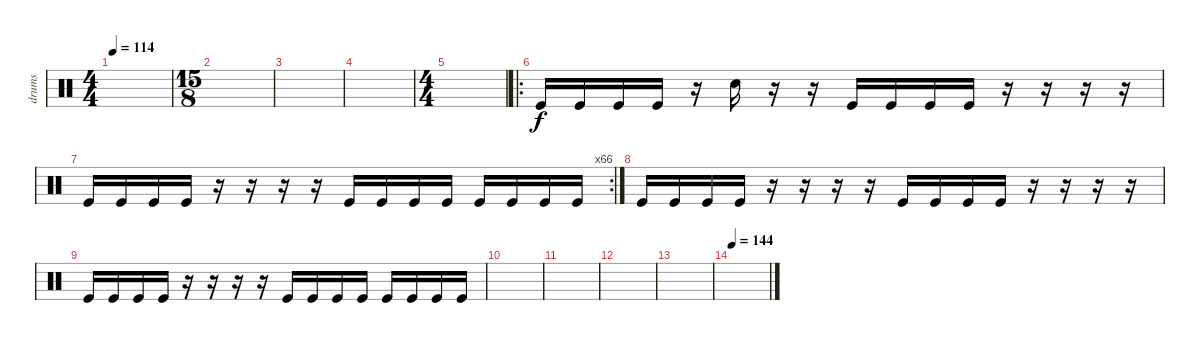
\track ("drums" "drums") {instrument percussion}
\staff {score}
\articulation defaults
\ts (4 4)
\tempo 114
\tempo 80
\tempo 114
\clef neutral
\ks c
|
\ts (15 8)
|
|
|
\ts (4 4)
|
\ro "Kick (hit)".16 "Kick (hit)".16 "Kick (hit)".16 "Kick (hit)".16
r.16 "Electric Snare (hit)".16 r.16 r.16 "Kick (hit)".16 "Kick (hit)".16 "Kick (hit)".16 "Kick (hit)".16 r.16 r.16 r.16 r.16 |
\rc 66 "Kick (hit)".16 "Kick (hit)".16 "Kick (hit)".16 "Kick (hit)".16
r.16 r.16 r.16 r.16 "Kick (hit)".16 "Kick (hit)".16 "Kick (hit)".16 "Kick (hit)".16 "Kick (hit)".16 "Kick (hit)".16 "Kick (hit)".16 "Kick (hit)".16 |
"Kick (hit)".16 "Kick (hit)".16 "Kick (hit)".16 "Kick (hit)".16 r.16 r.16 r.16 r.16 "Kick (hit)".16 "Kick (hit)".16 "Kick (hit)".16 "Kick (hit)".16 r.16 r.16 r.16 r.16 |
"Kick (hit)".16 "Kick (hit)".16 "Kick (hit)".16 "Kick (hit)".16 r.16 r.16 r.16 r.16 "Kick (hit)".16 "Kick (hit)".16 "Kick (hit)".16 "Kick (hit)".16 "Kick (hit)".16 "Kick (hit)".16 "Kick (hit)".16 "Kick (hit)".16 |
|
|
|
|
\tempo 144
